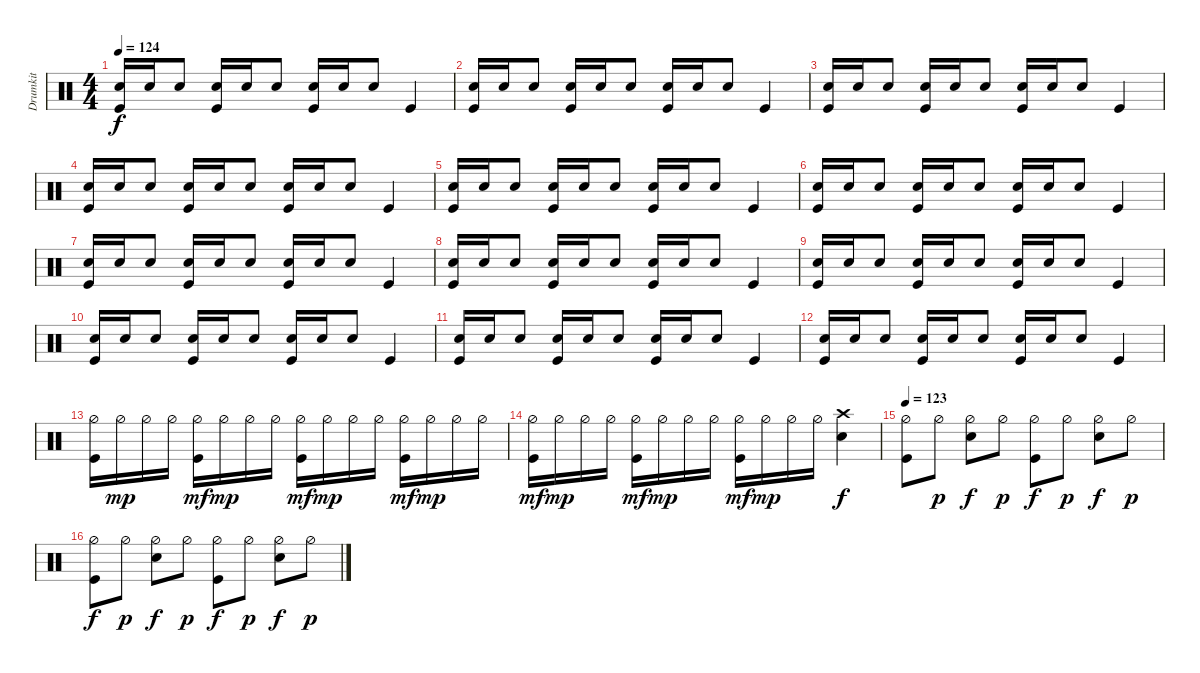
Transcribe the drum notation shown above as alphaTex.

\track ("Drumkit" "Drumkit") {instrument percussion}
\staff {score}
\articulation defaults
\ts (4 4)
\tempo 124
\clef neutral
\ks c
("Kick (hit)" "Snare (hit) 2").16{dy f} "Snare (hit) 2".16 "Snare (hit) 2".8 ("Kick (hit)" "Snare (hit) 2").16 "Snare (hit) 2".16 "Snare (hit) 2".8 ("Kick (hit)" "Snare (hit) 2").16 "Snare (hit) 2".16 "Snare (hit) 2".8 "Kick (hit)".4 |
("Kick (hit)" "Snare (hit) 2").16 "Snare (hit) 2".16 "Snare (hit) 2".8 ("Kick (hit)" "Snare (hit) 2").16 "Snare (hit) 2".16 "Snare (hit) 2".8 ("Kick (hit)" "Snare (hit) 2").16 "Snare (hit) 2".16 "Snare (hit) 2".8 "Kick (hit)".4 |
("Kick (hit)" "Snare (hit) 2").16 "Snare (hit) 2".16 "Snare (hit) 2".8 ("Kick (hit)" "Snare (hit) 2").16 "Snare (hit) 2".16 "Snare (hit) 2".8 ("Kick (hit)" "Snare (hit) 2").16 "Snare (hit) 2".16 "Snare (hit) 2".8 "Kick (hit)".4 |
("Kick (hit)" "Snare (hit) 2").16 "Snare (hit) 2".16 "Snare (hit) 2".8 ("Kick (hit)" "Snare (hit) 2").16 "Snare (hit) 2".16 "Snare (hit) 2".8 ("Kick (hit)" "Snare (hit) 2").16 "Snare (hit) 2".16 "Snare (hit) 2".8 "Kick (hit)".4 |
("Kick (hit)" "Snare (hit) 2").16 "Snare (hit) 2".16 "Snare (hit) 2".8 ("Kick (hit)" "Snare (hit) 2").16 "Snare (hit) 2".16 "Snare (hit) 2".8 ("Kick (hit)" "Snare (hit) 2").16 "Snare (hit) 2".16 "Snare (hit) 2".8 "Kick (hit)".4 |
("Kick (hit)" "Snare (hit) 2").16 "Snare (hit) 2".16 "Snare (hit) 2".8 ("Kick (hit)" "Snare (hit) 2").16 "Snare (hit) 2".16 "Snare (hit) 2".8 ("Kick (hit)" "Snare (hit) 2").16 "Snare (hit) 2".16 "Snare (hit) 2".8 "Kick (hit)".4 |
("Kick (hit)" "Snare (hit) 2").16 "Snare (hit) 2".16 "Snare (hit) 2".8 ("Kick (hit)" "Snare (hit) 2").16 "Snare (hit) 2".16 "Snare (hit) 2".8 ("Kick (hit)" "Snare (hit) 2").16 "Snare (hit) 2".16 "Snare (hit) 2".8 "Kick (hit)".4 |
("Kick (hit)" "Snare (hit) 2").16 "Snare (hit) 2".16 "Snare (hit) 2".8 ("Kick (hit)" "Snare (hit) 2").16 "Snare (hit) 2".16 "Snare (hit) 2".8 ("Kick (hit)" "Snare (hit) 2").16 "Snare (hit) 2".16 "Snare (hit) 2".8 "Kick (hit)".4 |
("Kick (hit)" "Snare (hit) 2").16 "Snare (hit) 2".16 "Snare (hit) 2".8 ("Kick (hit)" "Snare (hit) 2").16 "Snare (hit) 2".16 "Snare (hit) 2".8 ("Kick (hit)" "Snare (hit) 2").16 "Snare (hit) 2".16 "Snare (hit) 2".8 "Kick (hit)".4 |
("Kick (hit)" "Snare (hit) 2").16 "Snare (hit) 2".16 "Snare (hit) 2".8 ("Kick (hit)" "Snare (hit) 2").16 "Snare (hit) 2".16 "Snare (hit) 2".8 ("Kick (hit)" "Snare (hit) 2").16 "Snare (hit) 2".16 "Snare (hit) 2".8 "Kick (hit)".4 |
("Kick (hit)" "Snare (hit) 2").16 "Snare (hit) 2".16 "Snare (hit) 2".8 ("Kick (hit)" "Snare (hit) 2").16 "Snare (hit) 2".16 "Snare (hit) 2".8 ("Kick (hit)" "Snare (hit) 2").16 "Snare (hit) 2".16 "Snare (hit) 2".8 "Kick (hit)".4 |
("Kick (hit)" "Snare (hit) 2").16 "Snare (hit) 2".16 "Snare (hit) 2".8 ("Kick (hit)" "Snare (hit) 2").16 "Snare (hit) 2".16 "Snare (hit) 2".8 ("Kick (hit)" "Snare (hit) 2").16 "Snare (hit) 2".16 "Snare (hit) 2".8 "Kick (hit)".4 |
("Kick (hit)" "Hi-Hat (half)").16 "Hi-Hat (half)".16{dy mp} "Hi-Hat (half)".16 "Hi-Hat (half)".16 ("Hi-Hat (half)" "Kick (hit)").16{dy mf} "Hi-Hat (half)".16{dy mp} "Hi-Hat (half)".16 "Hi-Hat (half)".16 ("Hi-Hat (half)" "Kick (hit)").16{dy mf} "Hi-Hat (half)".16{dy mp} "Hi-Hat (half)".16 "Hi-Hat (half)".16 ("Hi-Hat (half)" "Kick (hit)").16{dy mf} "Hi-Hat (half)".16{dy mp} "Hi-Hat (half)".16 "Hi-Hat (half)".16 |
("Kick (hit)" "Hi-Hat (half)").16{dy mf} "Hi-Hat (half)".16{dy mp} "Hi-Hat (half)".16 "Hi-Hat (half)".16 ("Hi-Hat (half)" "Kick (hit)").16{dy mf} "Hi-Hat (half)".16{dy mp} "Hi-Hat (half)".16 "Hi-Hat (half)".16 ("Hi-Hat (half)" "Kick (hit)").16{dy mf} "Hi-Hat (half)".16{dy mp} "Hi-Hat (half)".16 "Hi-Hat (half)".16 ("Snare (hit) 2" "Crash high (hit)").4{dy f} |
\tempo 123
("Hi-Hat (half)" "Kick (hit)").8 "Hi-Hat (half)".8{dy p} ("Hi-Hat (half)" "Snare (hit) 2").8{dy f} "Hi-Hat (half)".8{dy p} ("Hi-Hat (half)" "Kick (hit)").8{dy f} "Hi-Hat (half)".8{dy p} ("Hi-Hat (half)" "Snare (hit) 2").8{dy f} "Hi-Hat (half)".8{dy p} |
("Hi-Hat (half)" "Kick (hit)").8{dy f} "Hi-Hat (half)".8{dy p} ("Hi-Hat (half)" "Snare (hit) 2").8{dy f} "Hi-Hat (half)".8{dy p} ("Hi-Hat (half)" "Kick (hit)").8{dy f} "Hi-Hat (half)".8{dy p} ("Hi-Hat (half)" "Snare (hit) 2").8{dy f} "Hi-Hat (half)".8{dy p}
